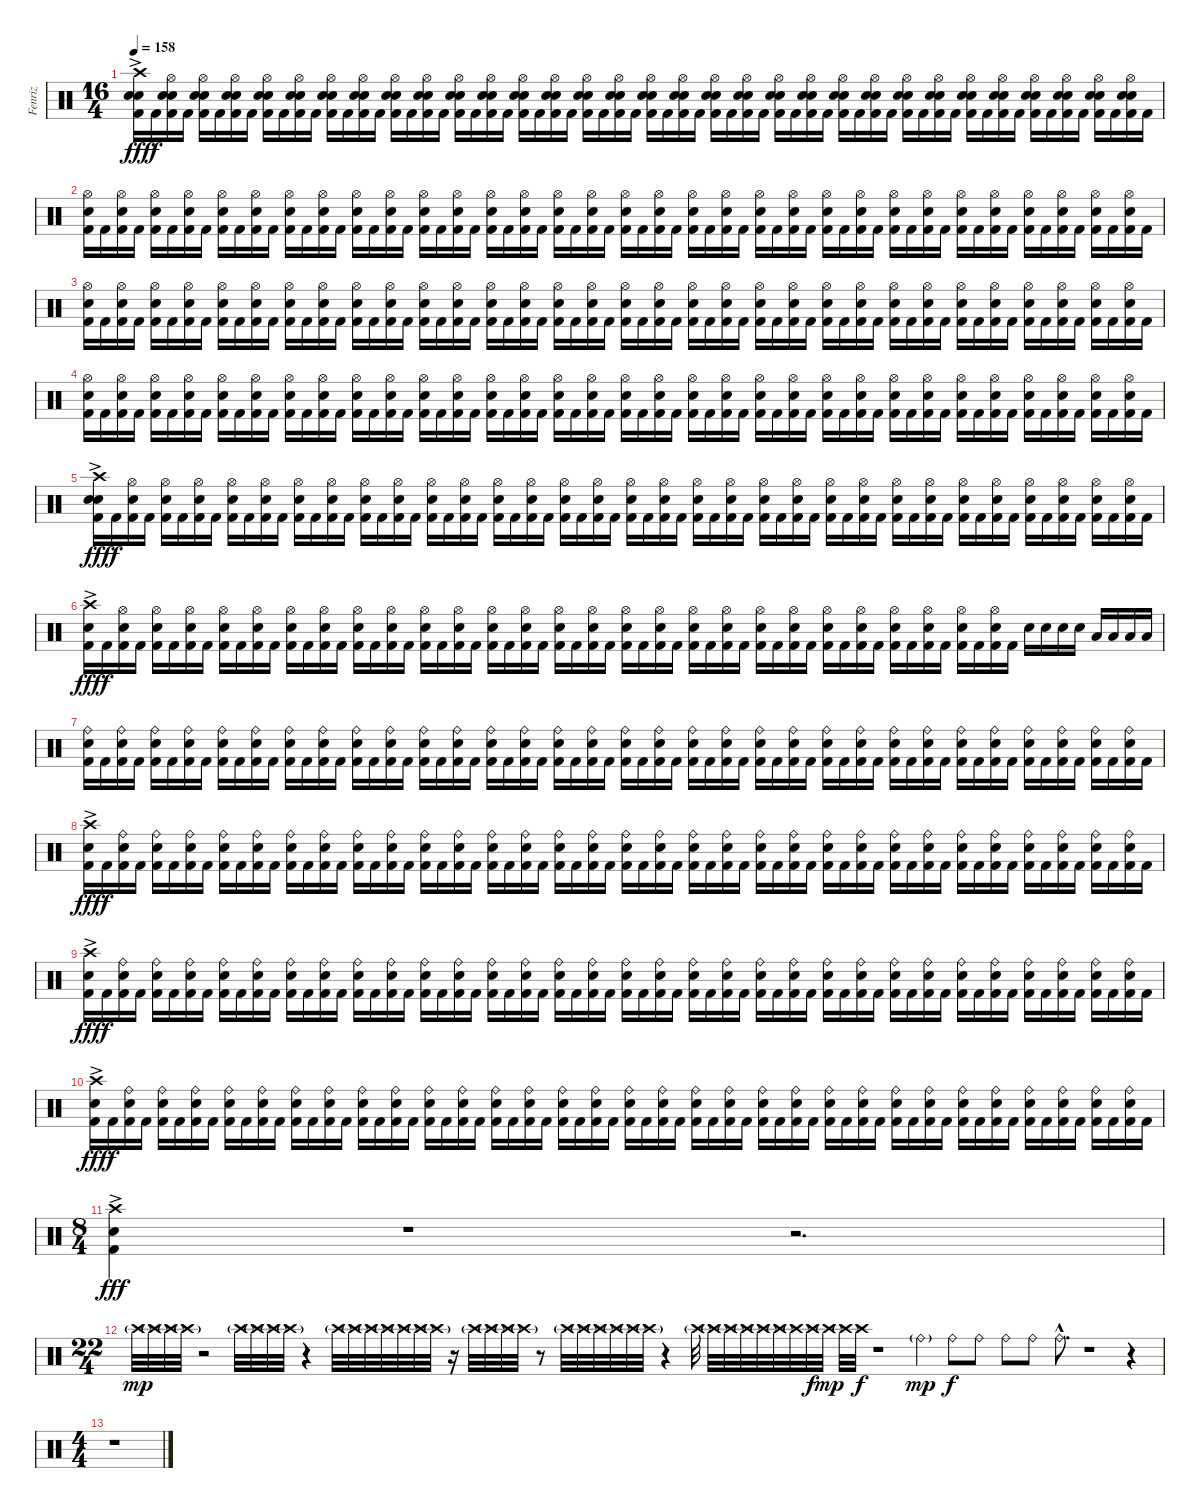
\track ("Fenriz" "Fenriz") {instrument percussion}
\staff {score}
\articulation defaults
\ts (16 4)
\tempo 158
\clef neutral
\ks c
("Crash high (hit)"{ac} "Snare (hit) 2" "Snare (hit) 2" "Kick (hit) 2").16{dy fff} "Kick (hit) 2".16{dy f} ("Hi-Hat (open)" "Snare (hit) 2" "Snare (hit) 2" "Kick (hit) 2").16 "Kick (hit) 2".16 ("Hi-Hat (open)" "Snare (hit) 2" "Snare (hit) 2" "Kick (hit) 2").16 "Kick (hit) 2".16 ("Hi-Hat (open)" "Snare (hit) 2" "Snare (hit) 2" "Kick (hit) 2").16 "Kick (hit) 2".16 ("Hi-Hat (open)" "Snare (hit) 2" "Snare (hit) 2" "Kick (hit) 2").16 "Kick (hit) 2".16 ("Hi-Hat (open)" "Snare (hit) 2" "Snare (hit) 2" "Kick (hit) 2").16 "Kick (hit) 2".16 ("Hi-Hat (open)" "Snare (hit) 2" "Snare (hit) 2" "Kick (hit) 2").16 "Kick (hit) 2".16 ("Hi-Hat (open)" "Snare (hit) 2" "Snare (hit) 2" "Kick (hit) 2").16 "Kick (hit) 2".16 ("Hi-Hat (open)" "Snare (hit) 2" "Snare (hit) 2" "Kick (hit) 2").16 "Kick (hit) 2".16 ("Hi-Hat (open)" "Snare (hit) 2" "Snare (hit) 2" "Kick (hit) 2").16 "Kick (hit) 2".16 ("Hi-Hat (open)" "Snare (hit) 2" "Snare (hit) 2" "Kick (hit) 2").16 "Kick (hit) 2".16 ("Hi-Hat (open)" "Snare (hit) 2" "Snare (hit) 2" "Kick (hit) 2").16 "Kick (hit) 2".16 ("Hi-Hat (open)" "Snare (hit) 2" "Snare (hit) 2" "Kick (hit) 2").16 "Kick (hit) 2".16 ("Hi-Hat (open)" "Snare (hit) 2" "Snare (hit) 2" "Kick (hit) 2").16 "Kick (hit) 2".16 ("Hi-Hat (open)" "Snare (hit) 2" "Snare (hit) 2" "Kick (hit) 2").16 "Kick (hit) 2".16 ("Hi-Hat (open)" "Snare (hit) 2" "Snare (hit) 2" "Kick (hit) 2").16 "Kick (hit) 2".16 ("Hi-Hat (open)" "Snare (hit) 2" "Snare (hit) 2" "Kick (hit) 2").16 "Kick (hit) 2".16 ("Hi-Hat (open)" "Snare (hit) 2" "Snare (hit) 2" "Kick (hit) 2").16 "Kick (hit) 2".16 ("Hi-Hat (open)" "Snare (hit) 2" "Snare (hit) 2" "Kick (hit) 2").16 "Kick (hit) 2".16 ("Hi-Hat (open)" "Snare (hit) 2" "Snare (hit) 2" "Kick (hit) 2").16 "Kick (hit) 2".16 ("Hi-Hat (open)" "Snare (hit) 2" "Snare (hit) 2" "Kick (hit) 2").16 "Kick (hit) 2".16 ("Hi-Hat (open)" "Snare (hit) 2" "Snare (hit) 2" "Kick (hit) 2").16 "Kick (hit) 2".16 ("Hi-Hat (open)" "Snare (hit) 2" "Snare (hit) 2" "Kick (hit) 2").16 "Kick (hit) 2".16 ("Hi-Hat (open)" "Snare (hit) 2" "Snare (hit) 2" "Kick (hit) 2").16 "Kick (hit) 2".16 ("Hi-Hat (open)" "Snare (hit) 2" "Snare (hit) 2" "Kick (hit) 2").16 "Kick (hit) 2".16 ("Hi-Hat (open)" "Snare (hit) 2" "Snare (hit) 2" "Kick (hit) 2").16 "Kick (hit) 2".16 ("Hi-Hat (open)" "Snare (hit) 2" "Snare (hit) 2" "Kick (hit) 2").16 "Kick (hit) 2".16 ("Hi-Hat (open)" "Snare (hit) 2" "Snare (hit) 2" "Kick (hit) 2").16 "Kick (hit) 2".16 ("Hi-Hat (open)" "Snare (hit) 2" "Snare (hit) 2" "Kick (hit) 2").16 "Kick (hit) 2".16 ("Hi-Hat (open)" "Snare (hit) 2" "Snare (hit) 2" "Kick (hit) 2").16 "Kick (hit) 2".16 ("Hi-Hat (open)" "Snare (hit) 2" "Snare (hit) 2" "Kick (hit) 2").16 "Kick (hit) 2".16 ("Hi-Hat (open)" "Snare (hit) 2" "Snare (hit) 2" "Kick (hit) 2").16 "Kick (hit) 2".16 |
("Hi-Hat (open)" "Snare (hit) 2" "Kick (hit) 2").16 "Kick (hit) 2".16 ("Hi-Hat (open)" "Snare (hit) 2" "Kick (hit) 2").16 "Kick (hit) 2".16 ("Hi-Hat (open)" "Snare (hit) 2" "Kick (hit) 2").16 "Kick (hit) 2".16 ("Hi-Hat (open)" "Snare (hit) 2" "Kick (hit) 2").16 "Kick (hit) 2".16 ("Hi-Hat (open)" "Snare (hit) 2" "Kick (hit) 2").16 "Kick (hit) 2".16 ("Hi-Hat (open)" "Snare (hit) 2" "Kick (hit) 2").16 "Kick (hit) 2".16 ("Hi-Hat (open)" "Snare (hit) 2" "Kick (hit) 2").16 "Kick (hit) 2".16 ("Hi-Hat (open)" "Snare (hit) 2" "Kick (hit) 2").16 "Kick (hit) 2".16 ("Hi-Hat (open)" "Snare (hit) 2" "Kick (hit) 2").16 "Kick (hit) 2".16 ("Hi-Hat (open)" "Snare (hit) 2" "Kick (hit) 2").16 "Kick (hit) 2".16 ("Hi-Hat (open)" "Snare (hit) 2" "Kick (hit) 2").16 "Kick (hit) 2".16 ("Hi-Hat (open)" "Snare (hit) 2" "Kick (hit) 2").16 "Kick (hit) 2".16 ("Hi-Hat (open)" "Snare (hit) 2" "Kick (hit) 2").16 "Kick (hit) 2".16 ("Hi-Hat (open)" "Snare (hit) 2" "Kick (hit) 2").16 "Kick (hit) 2".16 ("Hi-Hat (open)" "Snare (hit) 2" "Kick (hit) 2").16 "Kick (hit) 2".16 ("Hi-Hat (open)" "Snare (hit) 2" "Kick (hit) 2").16 "Kick (hit) 2".16 ("Hi-Hat (open)" "Snare (hit) 2" "Kick (hit) 2").16 "Kick (hit) 2".16 ("Hi-Hat (open)" "Snare (hit) 2" "Kick (hit) 2").16 "Kick (hit) 2".16 ("Hi-Hat (open)" "Snare (hit) 2" "Kick (hit) 2").16 "Kick (hit) 2".16 ("Hi-Hat (open)" "Snare (hit) 2" "Kick (hit) 2").16 "Kick (hit) 2".16 ("Hi-Hat (open)" "Snare (hit) 2" "Kick (hit) 2").16 "Kick (hit) 2".16 ("Hi-Hat (open)" "Snare (hit) 2" "Kick (hit) 2").16 "Kick (hit) 2".16 ("Hi-Hat (open)" "Snare (hit) 2" "Kick (hit) 2").16 "Kick (hit) 2".16 ("Hi-Hat (open)" "Snare (hit) 2" "Kick (hit) 2").16 "Kick (hit) 2".16 ("Hi-Hat (open)" "Snare (hit) 2" "Kick (hit) 2").16 "Kick (hit) 2".16 ("Hi-Hat (open)" "Snare (hit) 2" "Kick (hit) 2").16 "Kick (hit) 2".16 ("Hi-Hat (open)" "Snare (hit) 2" "Kick (hit) 2").16 "Kick (hit) 2".16 ("Hi-Hat (open)" "Snare (hit) 2" "Kick (hit) 2").16 "Kick (hit) 2".16 ("Hi-Hat (open)" "Snare (hit) 2" "Kick (hit) 2").16 "Kick (hit) 2".16 ("Hi-Hat (open)" "Snare (hit) 2" "Kick (hit) 2").16 "Kick (hit) 2".16 ("Hi-Hat (open)" "Snare (hit) 2" "Kick (hit) 2").16 "Kick (hit) 2".16 ("Hi-Hat (open)" "Snare (hit) 2" "Kick (hit) 2").16 "Kick (hit) 2".16 |
("Hi-Hat (open)" "Snare (hit) 2" "Kick (hit) 2").16 "Kick (hit) 2".16 ("Hi-Hat (open)" "Snare (hit) 2" "Kick (hit) 2").16 "Kick (hit) 2".16 ("Hi-Hat (open)" "Snare (hit) 2" "Kick (hit) 2").16 "Kick (hit) 2".16 ("Hi-Hat (open)" "Snare (hit) 2" "Kick (hit) 2").16 "Kick (hit) 2".16 ("Hi-Hat (open)" "Snare (hit) 2" "Kick (hit) 2").16 "Kick (hit) 2".16 ("Hi-Hat (open)" "Snare (hit) 2" "Kick (hit) 2").16 "Kick (hit) 2".16 ("Hi-Hat (open)" "Snare (hit) 2" "Kick (hit) 2").16 "Kick (hit) 2".16 ("Hi-Hat (open)" "Snare (hit) 2" "Kick (hit) 2").16 "Kick (hit) 2".16 ("Hi-Hat (open)" "Snare (hit) 2" "Kick (hit) 2").16 "Kick (hit) 2".16 ("Hi-Hat (open)" "Snare (hit) 2" "Kick (hit) 2").16 "Kick (hit) 2".16 ("Hi-Hat (open)" "Snare (hit) 2" "Kick (hit) 2").16 "Kick (hit) 2".16 ("Hi-Hat (open)" "Snare (hit) 2" "Kick (hit) 2").16 "Kick (hit) 2".16 ("Hi-Hat (open)" "Snare (hit) 2" "Kick (hit) 2").16 "Kick (hit) 2".16 ("Hi-Hat (open)" "Snare (hit) 2" "Kick (hit) 2").16 "Kick (hit) 2".16 ("Hi-Hat (open)" "Snare (hit) 2" "Kick (hit) 2").16 "Kick (hit) 2".16 ("Hi-Hat (open)" "Snare (hit) 2" "Kick (hit) 2").16 "Kick (hit) 2".16 ("Hi-Hat (open)" "Snare (hit) 2" "Kick (hit) 2").16 "Kick (hit) 2".16 ("Hi-Hat (open)" "Snare (hit) 2" "Kick (hit) 2").16 "Kick (hit) 2".16 ("Hi-Hat (open)" "Snare (hit) 2" "Kick (hit) 2").16 "Kick (hit) 2".16 ("Hi-Hat (open)" "Snare (hit) 2" "Kick (hit) 2").16 "Kick (hit) 2".16 ("Hi-Hat (open)" "Snare (hit) 2" "Kick (hit) 2").16 "Kick (hit) 2".16 ("Hi-Hat (open)" "Snare (hit) 2" "Kick (hit) 2").16 "Kick (hit) 2".16 ("Hi-Hat (open)" "Snare (hit) 2" "Kick (hit) 2").16 "Kick (hit) 2".16 ("Hi-Hat (open)" "Snare (hit) 2" "Kick (hit) 2").16 "Kick (hit) 2".16 ("Hi-Hat (open)" "Snare (hit) 2" "Kick (hit) 2").16 "Kick (hit) 2".16 ("Hi-Hat (open)" "Snare (hit) 2" "Kick (hit) 2").16 "Kick (hit) 2".16 ("Hi-Hat (open)" "Snare (hit) 2" "Kick (hit) 2").16 "Kick (hit) 2".16 ("Hi-Hat (open)" "Snare (hit) 2" "Kick (hit) 2").16 "Kick (hit) 2".16 ("Hi-Hat (open)" "Snare (hit) 2" "Kick (hit) 2").16 "Kick (hit) 2".16 ("Hi-Hat (open)" "Snare (hit) 2" "Kick (hit) 2").16 "Kick (hit) 2".16 ("Hi-Hat (open)" "Snare (hit) 2" "Kick (hit) 2").16 "Kick (hit) 2".16 ("Hi-Hat (open)" "Snare (hit) 2" "Kick (hit) 2").16 "Kick (hit) 2".16 |
("Hi-Hat (open)" "Snare (hit) 2" "Kick (hit) 2").16 "Kick (hit) 2".16 ("Hi-Hat (open)" "Snare (hit) 2" "Kick (hit) 2").16 "Kick (hit) 2".16 ("Hi-Hat (open)" "Snare (hit) 2" "Kick (hit) 2").16 "Kick (hit) 2".16 ("Hi-Hat (open)" "Snare (hit) 2" "Kick (hit) 2").16 "Kick (hit) 2".16 ("Hi-Hat (open)" "Snare (hit) 2" "Kick (hit) 2").16 "Kick (hit) 2".16 ("Hi-Hat (open)" "Snare (hit) 2" "Kick (hit) 2").16 "Kick (hit) 2".16 ("Hi-Hat (open)" "Snare (hit) 2" "Kick (hit) 2").16 "Kick (hit) 2".16 ("Hi-Hat (open)" "Snare (hit) 2" "Kick (hit) 2").16 "Kick (hit) 2".16 ("Hi-Hat (open)" "Snare (hit) 2" "Kick (hit) 2").16 "Kick (hit) 2".16 ("Hi-Hat (open)" "Snare (hit) 2" "Kick (hit) 2").16 "Kick (hit) 2".16 ("Hi-Hat (open)" "Snare (hit) 2" "Kick (hit) 2").16 "Kick (hit) 2".16 ("Hi-Hat (open)" "Snare (hit) 2" "Kick (hit) 2").16 "Kick (hit) 2".16 ("Hi-Hat (open)" "Snare (hit) 2" "Kick (hit) 2").16 "Kick (hit) 2".16 ("Hi-Hat (open)" "Snare (hit) 2" "Kick (hit) 2").16 "Kick (hit) 2".16 ("Hi-Hat (open)" "Snare (hit) 2" "Kick (hit) 2").16 "Kick (hit) 2".16 ("Hi-Hat (open)" "Snare (hit) 2" "Kick (hit) 2").16 "Kick (hit) 2".16 ("Hi-Hat (open)" "Snare (hit) 2" "Kick (hit) 2").16 "Kick (hit) 2".16 ("Hi-Hat (open)" "Snare (hit) 2" "Kick (hit) 2").16 "Kick (hit) 2".16 ("Hi-Hat (open)" "Snare (hit) 2" "Kick (hit) 2").16 "Kick (hit) 2".16 ("Hi-Hat (open)" "Snare (hit) 2" "Kick (hit) 2").16 "Kick (hit) 2".16 ("Hi-Hat (open)" "Snare (hit) 2" "Kick (hit) 2").16 "Kick (hit) 2".16 ("Hi-Hat (open)" "Snare (hit) 2" "Kick (hit) 2").16 "Kick (hit) 2".16 ("Hi-Hat (open)" "Snare (hit) 2" "Kick (hit) 2").16 "Kick (hit) 2".16 ("Hi-Hat (open)" "Snare (hit) 2" "Kick (hit) 2").16 "Kick (hit) 2".16 ("Hi-Hat (open)" "Snare (hit) 2" "Kick (hit) 2").16 "Kick (hit) 2".16 ("Hi-Hat (open)" "Snare (hit) 2" "Kick (hit) 2").16 "Kick (hit) 2".16 ("Hi-Hat (open)" "Snare (hit) 2" "Kick (hit) 2").16 "Kick (hit) 2".16 ("Hi-Hat (open)" "Snare (hit) 2" "Kick (hit) 2").16 "Kick (hit) 2".16 ("Hi-Hat (open)" "Snare (hit) 2" "Kick (hit) 2").16 "Kick (hit) 2".16 ("Hi-Hat (open)" "Snare (hit) 2" "Kick (hit) 2").16 "Kick (hit) 2".16 ("Hi-Hat (open)" "Snare (hit) 2" "Kick (hit) 2").16 "Kick (hit) 2".16 ("Hi-Hat (open)" "Snare (hit) 2" "Kick (hit) 2").16 "Kick (hit) 2".16 |
("Crash high (hit)"{ac} "Snare (hit) 2"{ac} "Snare (hit) 2"{ac} "Kick (hit) 2").16{dy fff} "Kick (hit) 2".16{dy f} ("Hi-Hat (open)" "Snare (hit) 2" "Kick (hit) 2").16 "Kick (hit) 2".16 ("Hi-Hat (open)" "Snare (hit) 2" "Kick (hit) 2").16 "Kick (hit) 2".16 ("Hi-Hat (open)" "Snare (hit) 2" "Kick (hit) 2").16 "Kick (hit) 2".16 ("Hi-Hat (open)" "Snare (hit) 2" "Kick (hit) 2").16 "Kick (hit) 2".16 ("Hi-Hat (open)" "Snare (hit) 2" "Kick (hit) 2").16 "Kick (hit) 2".16 ("Hi-Hat (open)" "Snare (hit) 2" "Kick (hit) 2").16 "Kick (hit) 2".16 ("Hi-Hat (open)" "Snare (hit) 2" "Kick (hit) 2").16 "Kick (hit) 2".16 ("Hi-Hat (open)" "Snare (hit) 2" "Kick (hit) 2").16 "Kick (hit) 2".16 ("Hi-Hat (open)" "Snare (hit) 2" "Kick (hit) 2").16 "Kick (hit) 2".16 ("Hi-Hat (open)" "Snare (hit) 2" "Kick (hit) 2").16 "Kick (hit) 2".16 ("Hi-Hat (open)" "Snare (hit) 2" "Kick (hit) 2").16 "Kick (hit) 2".16 ("Hi-Hat (open)" "Snare (hit) 2" "Kick (hit) 2").16 "Kick (hit) 2".16 ("Hi-Hat (open)" "Snare (hit) 2" "Kick (hit) 2").16 "Kick (hit) 2".16 ("Hi-Hat (open)" "Snare (hit) 2" "Kick (hit) 2").16 "Kick (hit) 2".16 ("Hi-Hat (open)" "Snare (hit) 2" "Kick (hit) 2").16 "Kick (hit) 2".16 ("Hi-Hat (open)" "Snare (hit) 2" "Kick (hit) 2").16 "Kick (hit) 2".16 ("Hi-Hat (open)" "Snare (hit) 2" "Kick (hit) 2").16 "Kick (hit) 2".16 ("Hi-Hat (open)" "Snare (hit) 2" "Kick (hit) 2").16 "Kick (hit) 2".16 ("Hi-Hat (open)" "Snare (hit) 2" "Kick (hit) 2").16 "Kick (hit) 2".16 ("Hi-Hat (open)" "Snare (hit) 2" "Kick (hit) 2").16 "Kick (hit) 2".16 ("Hi-Hat (open)" "Snare (hit) 2" "Kick (hit) 2").16 "Kick (hit) 2".16 ("Hi-Hat (open)" "Snare (hit) 2" "Kick (hit) 2").16 "Kick (hit) 2".16 ("Hi-Hat (open)" "Snare (hit) 2" "Kick (hit) 2").16 "Kick (hit) 2".16 ("Hi-Hat (open)" "Snare (hit) 2" "Kick (hit) 2").16 "Kick (hit) 2".16 ("Hi-Hat (open)" "Snare (hit) 2" "Kick (hit) 2").16 "Kick (hit) 2".16 ("Hi-Hat (open)" "Snare (hit) 2" "Kick (hit) 2").16 "Kick (hit) 2".16 ("Hi-Hat (open)" "Snare (hit) 2" "Kick (hit) 2").16 "Kick (hit) 2".16 ("Hi-Hat (open)" "Snare (hit) 2" "Kick (hit) 2").16 "Kick (hit) 2".16 ("Hi-Hat (open)" "Snare (hit) 2" "Kick (hit) 2").16 "Kick (hit) 2".16 ("Hi-Hat (open)" "Snare (hit) 2" "Kick (hit) 2").16 "Kick (hit) 2".16 ("Hi-Hat (open)" "Snare (hit) 2" "Kick (hit) 2").16 "Kick (hit) 2".16 |
("Crash high (hit)"{ac} "Snare (hit) 2" "Kick (hit) 2").16{dy fff} "Kick (hit) 2".16{dy f} ("Hi-Hat (open)" "Snare (hit) 2" "Kick (hit) 2").16 "Kick (hit) 2".16 ("Hi-Hat (open)" "Snare (hit) 2" "Kick (hit) 2").16 "Kick (hit) 2".16 ("Hi-Hat (open)" "Snare (hit) 2" "Kick (hit) 2").16 "Kick (hit) 2".16 ("Hi-Hat (open)" "Snare (hit) 2" "Kick (hit) 2").16 "Kick (hit) 2".16 ("Hi-Hat (open)" "Snare (hit) 2" "Kick (hit) 2").16 "Kick (hit) 2".16 ("Hi-Hat (open)" "Snare (hit) 2" "Kick (hit) 2").16 "Kick (hit) 2".16 ("Hi-Hat (open)" "Snare (hit) 2" "Kick (hit) 2").16 "Kick (hit) 2".16 ("Hi-Hat (open)" "Snare (hit) 2" "Kick (hit) 2").16 "Kick (hit) 2".16 ("Hi-Hat (open)" "Snare (hit) 2" "Kick (hit) 2").16 "Kick (hit) 2".16 ("Hi-Hat (open)" "Snare (hit) 2" "Kick (hit) 2").16 "Kick (hit) 2".16 ("Hi-Hat (open)" "Snare (hit) 2" "Kick (hit) 2").16 "Kick (hit) 2".16 ("Hi-Hat (open)" "Snare (hit) 2" "Kick (hit) 2").16 "Kick (hit) 2".16 ("Hi-Hat (open)" "Snare (hit) 2" "Kick (hit) 2").16 "Kick (hit) 2".16 ("Hi-Hat (open)" "Snare (hit) 2" "Kick (hit) 2").16 "Kick (hit) 2".16 ("Hi-Hat (open)" "Snare (hit) 2" "Kick (hit) 2").16 "Kick (hit) 2".16 ("Hi-Hat (open)" "Snare (hit) 2" "Kick (hit) 2").16 "Kick (hit) 2".16 ("Hi-Hat (open)" "Snare (hit) 2" "Kick (hit) 2").16 "Kick (hit) 2".16 ("Hi-Hat (open)" "Snare (hit) 2" "Kick (hit) 2").16 "Kick (hit) 2".16 ("Hi-Hat (open)" "Snare (hit) 2" "Kick (hit) 2").16 "Kick (hit) 2".16 ("Hi-Hat (open)" "Snare (hit) 2" "Kick (hit) 2").16 "Kick (hit) 2".16 ("Hi-Hat (open)" "Snare (hit) 2" "Kick (hit) 2").16 "Kick (hit) 2".16 ("Hi-Hat (open)" "Snare (hit) 2" "Kick (hit) 2").16 "Kick (hit) 2".16 ("Hi-Hat (open)" "Snare (hit) 2" "Kick (hit) 2").16 "Kick (hit) 2".16 ("Hi-Hat (open)" "Snare (hit) 2" "Kick (hit) 2").16 "Kick (hit) 2".16 ("Hi-Hat (open)" "Snare (hit) 2" "Kick (hit) 2").16 "Kick (hit) 2".16 ("Hi-Hat (open)" "Snare (hit) 2" "Kick (hit) 2").16 "Kick (hit) 2".16 ("Hi-Hat (open)" "Snare (hit) 2" "Kick (hit) 2").16 "Kick (hit) 2".16 "Snare (hit) 2".16 "Snare (hit) 2".16 "Snare (hit) 2".16 "Snare (hit) 2".16 "Low Floor Tom (hit)".16 "Low Floor Tom (hit)".16 "Low Floor Tom (hit)".16 "Low Floor Tom (hit)".16 |
("Ride (bell)" "Snare (hit) 2" "Kick (hit) 2").16 "Kick (hit) 2".16 ("Ride (bell)" "Snare (hit) 2" "Kick (hit) 2").16 "Kick (hit) 2".16 ("Ride (bell)" "Snare (hit) 2" "Kick (hit) 2").16 "Kick (hit) 2".16 ("Ride (bell)" "Snare (hit) 2" "Kick (hit) 2").16 "Kick (hit) 2".16 ("Ride (bell)" "Snare (hit) 2" "Kick (hit) 2").16 "Kick (hit) 2".16 ("Ride (bell)" "Snare (hit) 2" "Kick (hit) 2").16 "Kick (hit) 2".16 ("Ride (bell)" "Snare (hit) 2" "Kick (hit) 2").16 "Kick (hit) 2".16 ("Ride (bell)" "Snare (hit) 2" "Kick (hit) 2").16 "Kick (hit) 2".16 ("Ride (bell)" "Snare (hit) 2" "Kick (hit) 2").16 "Kick (hit) 2".16 ("Ride (bell)" "Snare (hit) 2" "Kick (hit) 2").16 "Kick (hit) 2".16 ("Ride (bell)" "Snare (hit) 2" "Kick (hit) 2").16 "Kick (hit) 2".16 ("Ride (bell)" "Snare (hit) 2" "Kick (hit) 2").16 "Kick (hit) 2".16 ("Ride (bell)" "Snare (hit) 2" "Kick (hit) 2").16 "Kick (hit) 2".16 ("Ride (bell)" "Snare (hit) 2" "Kick (hit) 2").16 "Kick (hit) 2".16 ("Ride (bell)" "Snare (hit) 2" "Kick (hit) 2").16 "Kick (hit) 2".16 ("Ride (bell)" "Snare (hit) 2" "Kick (hit) 2").16 "Kick (hit) 2".16 ("Ride (bell)" "Snare (hit) 2" "Kick (hit) 2").16 "Kick (hit) 2".16 ("Ride (bell)" "Snare (hit) 2" "Kick (hit) 2").16 "Kick (hit) 2".16 ("Ride (bell)" "Snare (hit) 2" "Kick (hit) 2").16 "Kick (hit) 2".16 ("Ride (bell)" "Snare (hit) 2" "Kick (hit) 2").16 "Kick (hit) 2".16 ("Ride (bell)" "Snare (hit) 2" "Kick (hit) 2").16 "Kick (hit) 2".16 ("Ride (bell)" "Snare (hit) 2" "Kick (hit) 2").16 "Kick (hit) 2".16 ("Ride (bell)" "Snare (hit) 2" "Kick (hit) 2").16 "Kick (hit) 2".16 ("Ride (bell)" "Snare (hit) 2" "Kick (hit) 2").16 "Kick (hit) 2".16 ("Ride (bell)" "Snare (hit) 2" "Kick (hit) 2").16 "Kick (hit) 2".16 ("Ride (bell)" "Snare (hit) 2" "Kick (hit) 2").16 "Kick (hit) 2".16 ("Ride (bell)" "Snare (hit) 2" "Kick (hit) 2").16 "Kick (hit) 2".16 ("Ride (bell)" "Snare (hit) 2" "Kick (hit) 2").16 "Kick (hit) 2".16 ("Ride (bell)" "Snare (hit) 2" "Kick (hit) 2").16 "Kick (hit) 2".16 ("Ride (bell)" "Snare (hit) 2" "Kick (hit) 2").16 "Kick (hit) 2".16 ("Ride (bell)" "Snare (hit) 2" "Kick (hit) 2").16 "Kick (hit) 2".16 ("Ride (bell)" "Snare (hit) 2" "Kick (hit) 2").16 "Kick (hit) 2".16 |
("Crash high (hit)"{ac} "Snare (hit) 2" "Kick (hit) 2").16{dy fff} "Kick (hit) 2".16{dy f} ("Ride (bell)" "Snare (hit) 2" "Kick (hit) 2").16 "Kick (hit) 2".16 ("Ride (bell)" "Snare (hit) 2" "Kick (hit) 2").16 "Kick (hit) 2".16 ("Ride (bell)" "Snare (hit) 2" "Kick (hit) 2").16 "Kick (hit) 2".16 ("Ride (bell)" "Snare (hit) 2" "Kick (hit) 2").16 "Kick (hit) 2".16 ("Ride (bell)" "Snare (hit) 2" "Kick (hit) 2").16 "Kick (hit) 2".16 ("Ride (bell)" "Snare (hit) 2" "Kick (hit) 2").16 "Kick (hit) 2".16 ("Ride (bell)" "Snare (hit) 2" "Kick (hit) 2").16 "Kick (hit) 2".16 ("Ride (bell)" "Snare (hit) 2" "Kick (hit) 2").16 "Kick (hit) 2".16 ("Ride (bell)" "Snare (hit) 2" "Kick (hit) 2").16 "Kick (hit) 2".16 ("Ride (bell)" "Snare (hit) 2" "Kick (hit) 2").16 "Kick (hit) 2".16 ("Ride (bell)" "Snare (hit) 2" "Kick (hit) 2").16 "Kick (hit) 2".16 ("Ride (bell)" "Snare (hit) 2" "Kick (hit) 2").16 "Kick (hit) 2".16 ("Ride (bell)" "Snare (hit) 2" "Kick (hit) 2").16 "Kick (hit) 2".16 ("Ride (bell)" "Snare (hit) 2" "Kick (hit) 2").16 "Kick (hit) 2".16 ("Ride (bell)" "Snare (hit) 2" "Kick (hit) 2").16 "Kick (hit) 2".16 ("Ride (bell)" "Snare (hit) 2" "Kick (hit) 2").16 "Kick (hit) 2".16 ("Ride (bell)" "Snare (hit) 2" "Kick (hit) 2").16 "Kick (hit) 2".16 ("Ride (bell)" "Snare (hit) 2" "Kick (hit) 2").16 "Kick (hit) 2".16 ("Ride (bell)" "Snare (hit) 2" "Kick (hit) 2").16 "Kick (hit) 2".16 ("Ride (bell)" "Snare (hit) 2" "Kick (hit) 2").16 "Kick (hit) 2".16 ("Ride (bell)" "Snare (hit) 2" "Kick (hit) 2").16 "Kick (hit) 2".16 ("Ride (bell)" "Snare (hit) 2" "Kick (hit) 2").16 "Kick (hit) 2".16 ("Ride (bell)" "Snare (hit) 2" "Kick (hit) 2").16 "Kick (hit) 2".16 ("Ride (bell)" "Snare (hit) 2" "Kick (hit) 2").16 "Kick (hit) 2".16 ("Ride (bell)" "Snare (hit) 2" "Kick (hit) 2").16 "Kick (hit) 2".16 ("Ride (bell)" "Snare (hit) 2" "Kick (hit) 2").16 "Kick (hit) 2".16 ("Ride (bell)" "Snare (hit) 2" "Kick (hit) 2").16 "Kick (hit) 2".16 ("Ride (bell)" "Snare (hit) 2" "Kick (hit) 2").16 "Kick (hit) 2".16 ("Ride (bell)" "Snare (hit) 2" "Kick (hit) 2").16 "Kick (hit) 2".16 ("Ride (bell)" "Snare (hit) 2" "Kick (hit) 2").16 "Kick (hit) 2".16 ("Ride (bell)" "Snare (hit) 2" "Kick (hit) 2").16 "Kick (hit) 2".16 |
("Crash high (hit)"{ac} "Snare (hit) 2" "Kick (hit) 2").16{dy fff} "Kick (hit) 2".16{dy f} ("Ride (bell)" "Snare (hit) 2" "Kick (hit) 2").16 "Kick (hit) 2".16 ("Ride (bell)" "Snare (hit) 2" "Kick (hit) 2").16 "Kick (hit) 2".16 ("Ride (bell)" "Snare (hit) 2" "Kick (hit) 2").16 "Kick (hit) 2".16 ("Ride (bell)" "Snare (hit) 2" "Kick (hit) 2").16 "Kick (hit) 2".16 ("Ride (bell)" "Snare (hit) 2" "Kick (hit) 2").16 "Kick (hit) 2".16 ("Ride (bell)" "Snare (hit) 2" "Kick (hit) 2").16 "Kick (hit) 2".16 ("Ride (bell)" "Snare (hit) 2" "Kick (hit) 2").16 "Kick (hit) 2".16 ("Ride (bell)" "Snare (hit) 2" "Kick (hit) 2").16 "Kick (hit) 2".16 ("Ride (bell)" "Snare (hit) 2" "Kick (hit) 2").16 "Kick (hit) 2".16 ("Ride (bell)" "Snare (hit) 2" "Kick (hit) 2").16 "Kick (hit) 2".16 ("Ride (bell)" "Snare (hit) 2" "Kick (hit) 2").16 "Kick (hit) 2".16 ("Ride (bell)" "Snare (hit) 2" "Kick (hit) 2").16 "Kick (hit) 2".16 ("Ride (bell)" "Snare (hit) 2" "Kick (hit) 2").16 "Kick (hit) 2".16 ("Ride (bell)" "Snare (hit) 2" "Kick (hit) 2").16 "Kick (hit) 2".16 ("Ride (bell)" "Snare (hit) 2" "Kick (hit) 2").16 "Kick (hit) 2".16 ("Ride (bell)" "Snare (hit) 2" "Kick (hit) 2").16 "Kick (hit) 2".16 ("Ride (bell)" "Snare (hit) 2" "Kick (hit) 2").16 "Kick (hit) 2".16 ("Ride (bell)" "Snare (hit) 2" "Kick (hit) 2").16 "Kick (hit) 2".16 ("Ride (bell)" "Snare (hit) 2" "Kick (hit) 2").16 "Kick (hit) 2".16 ("Ride (bell)" "Snare (hit) 2" "Kick (hit) 2").16 "Kick (hit) 2".16 ("Ride (bell)" "Snare (hit) 2" "Kick (hit) 2").16 "Kick (hit) 2".16 ("Ride (bell)" "Snare (hit) 2" "Kick (hit) 2").16 "Kick (hit) 2".16 ("Ride (bell)" "Snare (hit) 2" "Kick (hit) 2").16 "Kick (hit) 2".16 ("Ride (bell)" "Snare (hit) 2" "Kick (hit) 2").16 "Kick (hit) 2".16 ("Ride (bell)" "Snare (hit) 2" "Kick (hit) 2").16 "Kick (hit) 2".16 ("Ride (bell)" "Snare (hit) 2" "Kick (hit) 2").16 "Kick (hit) 2".16 ("Ride (bell)" "Snare (hit) 2" "Kick (hit) 2").16 "Kick (hit) 2".16 ("Ride (bell)" "Snare (hit) 2" "Kick (hit) 2").16 "Kick (hit) 2".16 ("Ride (bell)" "Snare (hit) 2" "Kick (hit) 2").16 "Kick (hit) 2".16 ("Ride (bell)" "Snare (hit) 2" "Kick (hit) 2").16 "Kick (hit) 2".16 ("Ride (bell)" "Snare (hit) 2" "Kick (hit) 2").16 "Kick (hit) 2".16 |
("Crash high (hit)"{ac} "Snare (hit) 2" "Kick (hit) 2").16{dy fff} "Kick (hit) 2".16{dy f} ("Ride (bell)" "Snare (hit) 2" "Kick (hit) 2").16 "Kick (hit) 2".16 ("Ride (bell)" "Snare (hit) 2" "Kick (hit) 2").16 "Kick (hit) 2".16 ("Ride (bell)" "Snare (hit) 2" "Kick (hit) 2").16 "Kick (hit) 2".16 ("Ride (bell)" "Snare (hit) 2" "Kick (hit) 2").16 "Kick (hit) 2".16 ("Ride (bell)" "Snare (hit) 2" "Kick (hit) 2").16 "Kick (hit) 2".16 ("Ride (bell)" "Snare (hit) 2" "Kick (hit) 2").16 "Kick (hit) 2".16 ("Ride (bell)" "Snare (hit) 2" "Kick (hit) 2").16 "Kick (hit) 2".16 ("Ride (bell)" "Snare (hit) 2" "Kick (hit) 2").16 "Kick (hit) 2".16 ("Ride (bell)" "Snare (hit) 2" "Kick (hit) 2").16 "Kick (hit) 2".16 ("Ride (bell)" "Snare (hit) 2" "Kick (hit) 2").16 "Kick (hit) 2".16 ("Ride (bell)" "Snare (hit) 2" "Kick (hit) 2").16 "Kick (hit) 2".16 ("Ride (bell)" "Snare (hit) 2" "Kick (hit) 2").16 "Kick (hit) 2".16 ("Ride (bell)" "Snare (hit) 2" "Kick (hit) 2").16 "Kick (hit) 2".16 ("Ride (bell)" "Snare (hit) 2" "Kick (hit) 2").16 "Kick (hit) 2".16 ("Ride (bell)" "Snare (hit) 2" "Kick (hit) 2").16 "Kick (hit) 2".16 ("Ride (bell)" "Snare (hit) 2" "Kick (hit) 2").16 "Kick (hit) 2".16 ("Ride (bell)" "Snare (hit) 2" "Kick (hit) 2").16 "Kick (hit) 2".16 ("Ride (bell)" "Snare (hit) 2" "Kick (hit) 2").16 "Kick (hit) 2".16 ("Ride (bell)" "Snare (hit) 2" "Kick (hit) 2").16 "Kick (hit) 2".16 ("Ride (bell)" "Snare (hit) 2" "Kick (hit) 2").16 "Kick (hit) 2".16 ("Ride (bell)" "Snare (hit) 2" "Kick (hit) 2").16 "Kick (hit) 2".16 ("Ride (bell)" "Snare (hit) 2" "Kick (hit) 2").16 "Kick (hit) 2".16 ("Ride (bell)" "Snare (hit) 2" "Kick (hit) 2").16 "Kick (hit) 2".16 ("Ride (bell)" "Snare (hit) 2" "Kick (hit) 2").16 "Kick (hit) 2".16 ("Ride (bell)" "Snare (hit) 2" "Kick (hit) 2").16 "Kick (hit) 2".16 ("Ride (bell)" "Snare (hit) 2" "Kick (hit) 2").16 "Kick (hit) 2".16 ("Ride (bell)" "Snare (hit) 2" "Kick (hit) 2").16 "Kick (hit) 2".16 ("Ride (bell)" "Snare (hit) 2" "Kick (hit) 2").16 "Kick (hit) 2".16 ("Ride (bell)" "Snare (hit) 2" "Kick (hit) 2").16 "Kick (hit) 2".16 ("Ride (bell)" "Snare (hit) 2" "Kick (hit) 2").16 "Kick (hit) 2".16 ("Ride (bell)" "Snare (hit) 2" "Kick (hit) 2").16 "Kick (hit) 2".16 |
\ts (8 4)
("Crash high (hit)"{ac} "Snare (hit) 2"{ac} "Kick (hit) 2"{ac}).4{dy fff} r.1 r.2{d} |
\ts (22 4)
"Crash high (hit)"{g}.32{dy mp} "Crash high (hit)"{g}.32 "Crash high (hit)"{g}.32 "Crash high (hit)"{g}.32 r.2 "Crash high (hit)"{g}.32 "Crash high (hit)"{g}.32 "Crash high (hit)"{g}.32 "Crash high (hit)"{g}.32 r.4 "Crash high (hit)"{g}.32 "Crash high (hit)"{g}.32 "Crash high (hit)"{g}.32 "Crash high (hit)"{g}.32 "Crash high (hit)"{g}.32 "Crash high (hit)"{g}.32 "Crash high (hit)"{g}.32 r.16 "Crash high (hit)"{g}.32 "Crash high (hit)"{g}.32 "Crash high (hit)"{g}.32 "Crash high (hit)"{g}.32 r.8 "Crash high (hit)"{g}.32 "Crash high (hit)"{g}.32 "Crash high (hit)"{g}.32 "Crash high (hit)"{g}.32 "Crash high (hit)"{g}.32 "Crash high (hit)"{g}.32 r.4 "Crash high (hit)"{g}.32 "Crash high (hit)"{g}.32 "Crash high (hit)"{g}.32 "Crash high (hit)"{g}.32 "Crash high (hit)"{g}.32 "Crash high (hit)"{g}.32 "Crash high (hit)"{g}.32 "Crash high (hit)".32{dy f} "Crash high (hit)"{g}.32{dy mp} "Crash high (hit)"{g}.32 "Crash high (hit)".32{dy f} r.1 "Ride (bell)"{g}.4{dy mp} "Ride (bell)".8{dy f} "Ride (bell)".8 "Ride (bell)".8 "Ride (bell)".8 "Ride (bell)"{hac}.8{d} r.1 r.4 |
\ts (4 4)
r.1
